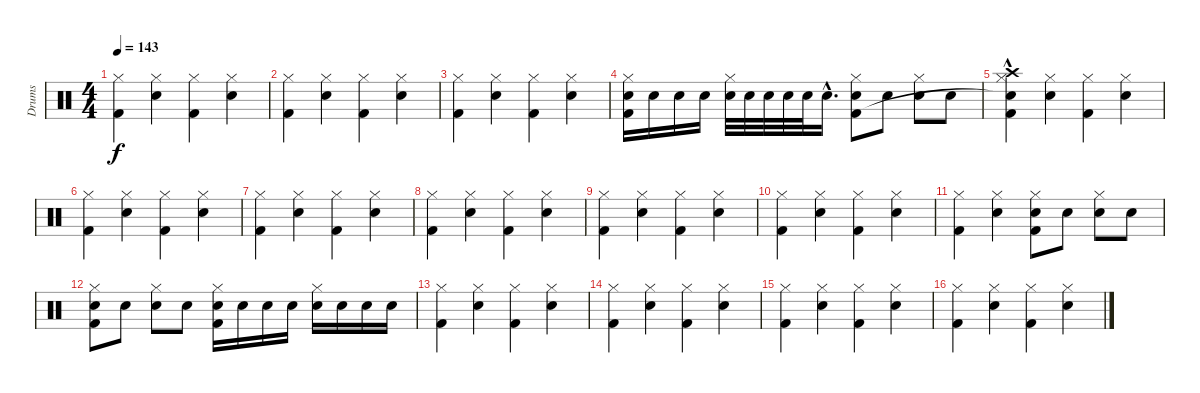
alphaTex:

\track ("Drums" "Drums") {instrument percussion}
\staff {score}
\articulation defaults
\ts (4 4)
\tempo 143
\clef neutral
\ks c
("Hi-Hat (closed)" "Kick (hit) 2").4{dy f} ("Hi-Hat (closed)" "Electric Snare (hit)").4 ("Hi-Hat (closed)" "Kick (hit) 2").4 ("Hi-Hat (closed)" "Electric Snare (hit)").4 |
("Hi-Hat (closed)" "Kick (hit) 2").4 ("Hi-Hat (closed)" "Electric Snare (hit)").4 ("Hi-Hat (closed)" "Kick (hit) 2").4 ("Hi-Hat (closed)" "Electric Snare (hit)").4 |
("Hi-Hat (closed)" "Kick (hit) 2").4 ("Hi-Hat (closed)" "Electric Snare (hit)").4 ("Hi-Hat (closed)" "Kick (hit) 2").4 ("Hi-Hat (closed)" "Electric Snare (hit)").4 |
("Hi-Hat (closed)" "Electric Snare (hit)" "Kick (hit) 2").16 "Electric Snare (hit)".16 "Electric Snare (hit)".16 "Electric Snare (hit)".16 ("Hi-Hat (closed)" "Electric Snare (hit)").32 "Electric Snare (hit)".32 "Electric Snare (hit)".32 "Electric Snare (hit)".32 "Electric Snare (hit)".32 "Electric Snare (hit)"{hac}.16{d} ("Hi-Hat (closed)" "Electric Snare (hit)" "Kick (hit) 2").8 "Electric Snare (hit)".8 ("Hi-Hat (closed)" "Electric Snare (hit)").8 "Electric Snare (hit)".8 |
("Crash high (hit)"{hac} "Hi-Hat (closed)" "Snare (hit)"{t} "Kick (hit) 2").4 ("Hi-Hat (closed)" "Electric Snare (hit)").4 ("Hi-Hat (closed)" "Kick (hit) 2").4 ("Hi-Hat (closed)" "Electric Snare (hit)").4 |
("Hi-Hat (closed)" "Kick (hit) 2").4 ("Hi-Hat (closed)" "Electric Snare (hit)").4 ("Hi-Hat (closed)" "Kick (hit) 2").4 ("Hi-Hat (closed)" "Electric Snare (hit)").4 |
("Hi-Hat (closed)" "Kick (hit) 2").4 ("Hi-Hat (closed)" "Electric Snare (hit)").4 ("Hi-Hat (closed)" "Kick (hit) 2").4 ("Hi-Hat (closed)" "Electric Snare (hit)").4 |
("Hi-Hat (closed)" "Kick (hit) 2").4 ("Hi-Hat (closed)" "Electric Snare (hit)").4 ("Hi-Hat (closed)" "Kick (hit) 2").4 ("Hi-Hat (closed)" "Electric Snare (hit)").4 |
("Hi-Hat (closed)" "Kick (hit) 2").4 ("Hi-Hat (closed)" "Electric Snare (hit)").4 ("Hi-Hat (closed)" "Kick (hit) 2").4 ("Hi-Hat (closed)" "Electric Snare (hit)").4 |
("Hi-Hat (closed)" "Kick (hit) 2").4 ("Hi-Hat (closed)" "Electric Snare (hit)").4 ("Hi-Hat (closed)" "Kick (hit) 2").4 ("Hi-Hat (closed)" "Electric Snare (hit)").4 |
("Hi-Hat (closed)" "Kick (hit) 2").4 ("Hi-Hat (closed)" "Electric Snare (hit)").4 ("Hi-Hat (closed)" "Electric Snare (hit)" "Kick (hit) 2").8 "Electric Snare (hit)".8 ("Hi-Hat (closed)" "Electric Snare (hit)").8 "Electric Snare (hit)".8 |
("Hi-Hat (closed)" "Electric Snare (hit)" "Kick (hit) 2").8 "Electric Snare (hit)".8 ("Hi-Hat (closed)" "Electric Snare (hit)").8 "Electric Snare (hit)".8 ("Hi-Hat (closed)" "Electric Snare (hit)" "Kick (hit) 2").16 "Electric Snare (hit)".16 "Electric Snare (hit)".16 "Electric Snare (hit)".16 ("Hi-Hat (closed)" "Electric Snare (hit)").16 "Electric Snare (hit)".16 "Electric Snare (hit)".16 "Electric Snare (hit)".16 |
("Hi-Hat (closed)" "Kick (hit) 2").4 ("Hi-Hat (closed)" "Electric Snare (hit)").4 ("Hi-Hat (closed)" "Kick (hit) 2").4 ("Hi-Hat (closed)" "Electric Snare (hit)").4 |
("Hi-Hat (closed)" "Kick (hit) 2").4 ("Hi-Hat (closed)" "Electric Snare (hit)").4 ("Hi-Hat (closed)" "Kick (hit) 2").4 ("Hi-Hat (closed)" "Electric Snare (hit)").4 |
("Hi-Hat (closed)" "Kick (hit) 2").4 ("Hi-Hat (closed)" "Electric Snare (hit)").4 ("Hi-Hat (closed)" "Kick (hit) 2").4 ("Hi-Hat (closed)" "Electric Snare (hit)").4 |
("Hi-Hat (closed)" "Kick (hit) 2").4 ("Hi-Hat (closed)" "Electric Snare (hit)").4 ("Hi-Hat (closed)" "Kick (hit) 2").4 ("Hi-Hat (closed)" "Electric Snare (hit)").4
